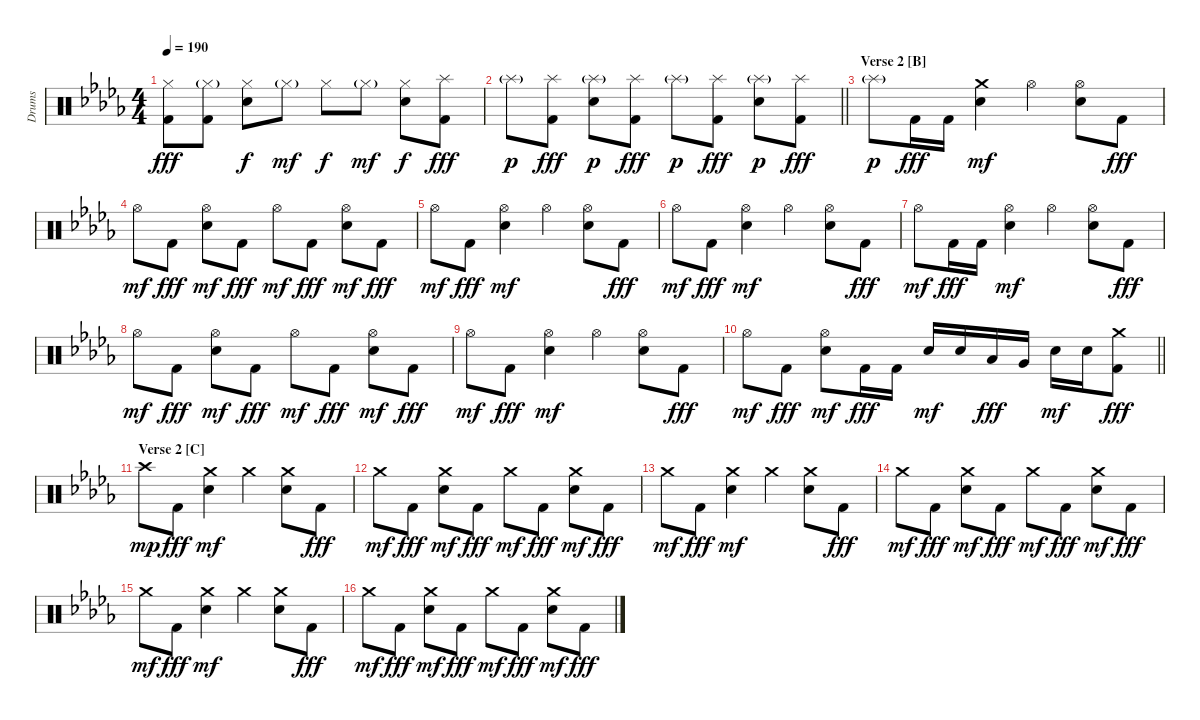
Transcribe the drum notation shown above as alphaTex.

\track ("Drums" "Drums") {instrument percussion}
\staff {score}
\articulation defaults
\ts (4 4)
\tempo 190
\clef neutral
\ks db
("Hi-Hat (closed)" "Kick (hit) 2").8{dy fff} ("Hi-Hat (closed)"{g} "Kick (hit) 2").8 ("Hi-Hat (closed)" "Electric Snare (hit)").8{dy f} "Hi-Hat (closed)"{g}.8{dy mf} "Hi-Hat (closed)".8{dy f} "Hi-Hat (closed)"{g}.8{dy mf} ("Hi-Hat (closed)" "Electric Snare (hit)").8{dy f} ("Splash (hit)" "Kick (hit) 2").8{dy fff} |
\barLineRight lightlight "Splash (hit)"{g}.8{dy p}
("Splash (hit)" "Kick (hit) 2").8{dy fff} ("Splash (hit)"{g} "Electric Snare (hit)").8{dy p} ("Splash (hit)" "Kick (hit) 2").8{dy fff} "Splash (hit)"{g}.8{dy p} ("Splash (hit)" "Kick (hit) 2").8{dy fff} ("Splash (hit)"{g} "Electric Snare (hit)").8{dy p} ("Splash (hit)" "Kick (hit) 2").8{dy fff} |
\section ("" "Verse 2 [B]")
"Splash (hit)"{g}.8{dy p} "Kick (hit) 2".16{dy fff} "Kick (hit) 2".16 ("Crash medium (hit)" "Electric Snare (hit)").4{dy mf} "Hi-Hat (open)".4 ("Hi-Hat (open)" "Electric Snare (hit)").8 "Kick (hit) 2".8{dy fff} |
"Hi-Hat (open)".8{dy mf} "Kick (hit) 2".8{dy fff} ("Hi-Hat (open)" "Electric Snare (hit)").8{dy mf} "Kick (hit) 2".8{dy fff} "Hi-Hat (open)".8{dy mf} "Kick (hit) 2".8{dy fff} ("Hi-Hat (open)" "Electric Snare (hit)").8{dy mf} "Kick (hit) 2".8{dy fff} |
"Hi-Hat (open)".8{dy mf} "Kick (hit) 2".8{dy fff} ("Hi-Hat (open)" "Electric Snare (hit)").4{dy mf} "Hi-Hat (open)".4 ("Hi-Hat (open)" "Electric Snare (hit)").8 "Kick (hit) 2".8{dy fff} |
"Hi-Hat (open)".8{dy mf} "Kick (hit) 2".8{dy fff} ("Hi-Hat (open)" "Electric Snare (hit)").4{dy mf} "Hi-Hat (open)".4 ("Hi-Hat (open)" "Electric Snare (hit)").8 "Kick (hit) 2".8{dy fff} |
"Hi-Hat (open)".8{dy mf} "Kick (hit) 2".16{dy fff} "Kick (hit) 2".16 ("Hi-Hat (open)" "Electric Snare (hit)").4{dy mf} "Hi-Hat (open)".4 ("Hi-Hat (open)" "Electric Snare (hit)").8 "Kick (hit) 2".8{dy fff} |
"Hi-Hat (open)".8{dy mf} "Kick (hit) 2".8{dy fff} ("Hi-Hat (open)" "Electric Snare (hit)").8{dy mf} "Kick (hit) 2".8{dy fff} "Hi-Hat (open)".8{dy mf} "Kick (hit) 2".8{dy fff} ("Hi-Hat (open)" "Electric Snare (hit)").8{dy mf} "Kick (hit) 2".8{dy fff} |
"Hi-Hat (open)".8{dy mf} "Kick (hit) 2".8{dy fff} ("Hi-Hat (open)" "Electric Snare (hit)").4{dy mf} "Hi-Hat (open)".4 ("Hi-Hat (open)" "Electric Snare (hit)").8 "Kick (hit) 2".8{dy fff} |
\barLineRight lightlight "Hi-Hat (open)".8{dy mf} "Kick (hit) 2".8{dy fff}
("Hi-Hat (open)" "Electric Snare (hit)").8{dy mf} "Kick (hit) 2".16{dy fff} "Kick (hit) 2".16 "Electric Snare (hit)".16{dy mf} "Electric Snare (hit)".16 "Low Tom (hit)".16{dy fff} "Very Low Tom (hit)".16 "Electric Snare (hit)".16{dy mf} "Electric Snare (hit)".16 ("Crash medium (hit)" "Kick (hit) 2").8{dy fff} |
\section ("" "Verse 2 [C]")
"Crash high (hit)".8{dy mp} "Kick (hit) 2".8{dy fff} ("Crash medium (hit)" "Electric Snare (hit)").4{dy mf} "Crash medium (hit)".4 ("Crash medium (hit)" "Electric Snare (hit)").8 "Kick (hit) 2".8{dy fff} |
"Crash medium (hit)".8{dy mf} "Kick (hit) 2".8{dy fff} ("Crash medium (hit)" "Electric Snare (hit)").8{dy mf} "Kick (hit) 2".8{dy fff} "Crash medium (hit)".8{dy mf} "Kick (hit) 2".8{dy fff} ("Crash medium (hit)" "Electric Snare (hit)").8{dy mf} "Kick (hit) 2".8{dy fff} |
"Crash medium (hit)".8{dy mf} "Kick (hit) 2".8{dy fff} ("Crash medium (hit)" "Electric Snare (hit)").4{dy mf} "Crash medium (hit)".4 ("Crash medium (hit)" "Electric Snare (hit)").8 "Kick (hit) 2".8{dy fff} |
"Crash medium (hit)".8{dy mf} "Kick (hit) 2".8{dy fff} ("Crash medium (hit)" "Electric Snare (hit)").8{dy mf} "Kick (hit) 2".8{dy fff} "Crash medium (hit)".8{dy mf} "Kick (hit) 2".8{dy fff} ("Crash medium (hit)" "Electric Snare (hit)").8{dy mf} "Kick (hit) 2".8{dy fff} |
"Crash medium (hit)".8{dy mf} "Kick (hit) 2".8{dy fff} ("Crash medium (hit)" "Electric Snare (hit)").4{dy mf} "Crash medium (hit)".4 ("Crash medium (hit)" "Electric Snare (hit)").8 "Kick (hit) 2".8{dy fff} |
"Crash medium (hit)".8{dy mf} "Kick (hit) 2".8{dy fff} ("Crash medium (hit)" "Electric Snare (hit)").8{dy mf} "Kick (hit) 2".8{dy fff} "Crash medium (hit)".8{dy mf} "Kick (hit) 2".8{dy fff} ("Crash medium (hit)" "Electric Snare (hit)").8{dy mf} "Kick (hit) 2".8{dy fff}
